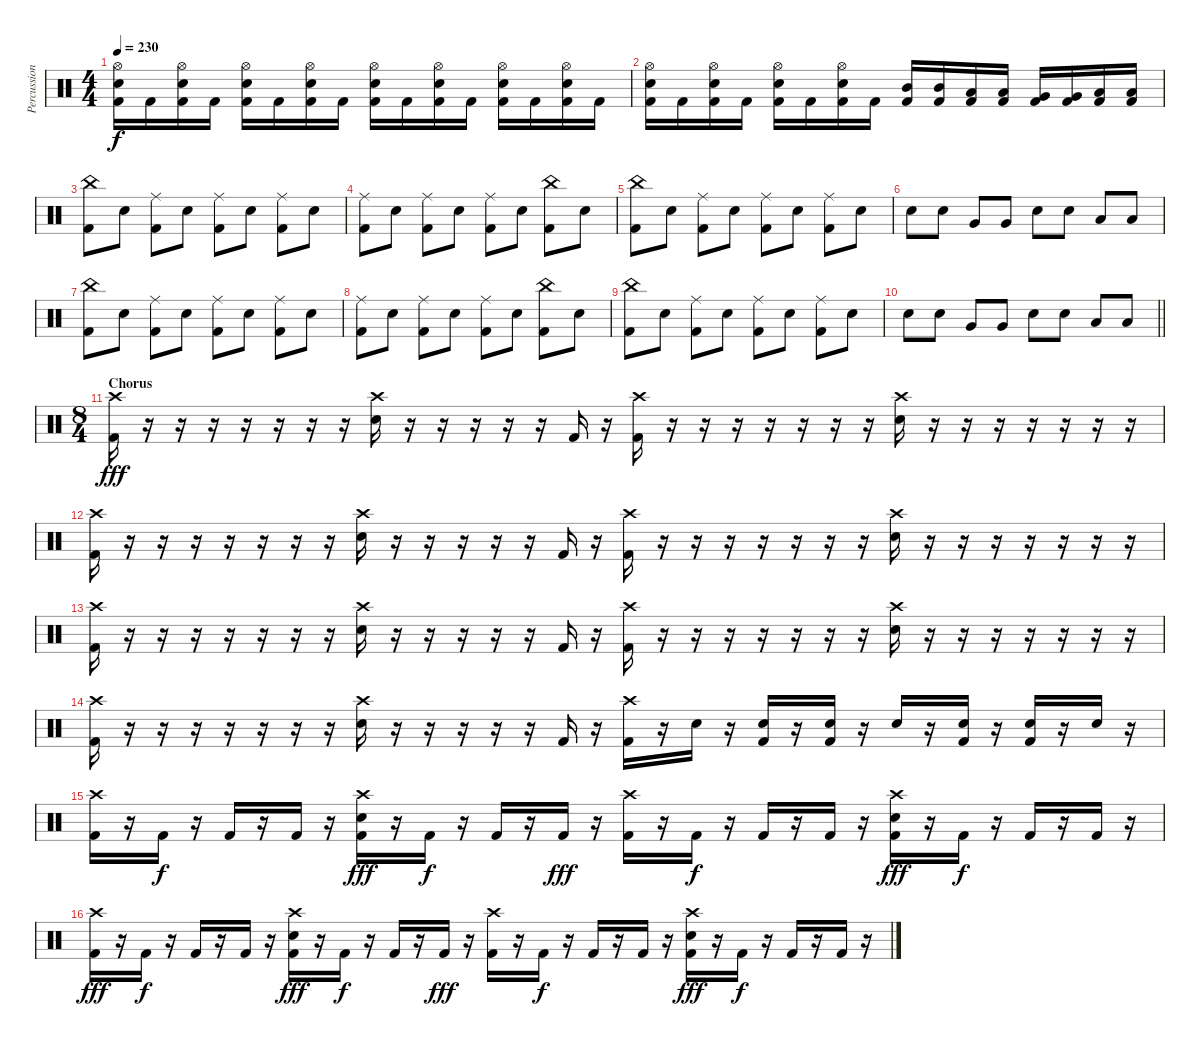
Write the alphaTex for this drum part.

\track ("Percussions" "Percussion") {instrument percussion}
\staff {score}
\articulation defaults
\ts (4 4)
\tempo 230
\clef neutral
\ks c
("Hi-Hat (open)" "Electric Snare (hit)" "Kick (hit) 2").16{dy f} "Kick (hit) 2".16 ("Hi-Hat (open)" "Electric Snare (hit)" "Kick (hit) 2").16 "Kick (hit) 2".16 ("Hi-Hat (open)" "Electric Snare (hit)" "Kick (hit) 2").16 "Kick (hit) 2".16 ("Hi-Hat (open)" "Electric Snare (hit)" "Kick (hit) 2").16 "Kick (hit) 2".16 ("Hi-Hat (open)" "Electric Snare (hit)" "Kick (hit) 2").16 "Kick (hit) 2".16 ("Hi-Hat (open)" "Electric Snare (hit)" "Kick (hit) 2").16 "Kick (hit) 2".16 ("Hi-Hat (open)" "Electric Snare (hit)" "Kick (hit) 2").16 "Kick (hit) 2".16 ("Hi-Hat (open)" "Electric Snare (hit)" "Kick (hit) 2").16 "Kick (hit) 2".16 |
("Hi-Hat (open)" "Electric Snare (hit)" "Kick (hit) 2").16 "Kick (hit) 2".16 ("Hi-Hat (open)" "Electric Snare (hit)" "Kick (hit) 2").16 "Kick (hit) 2".16 ("Hi-Hat (open)" "Electric Snare (hit)" "Kick (hit) 2").16 "Kick (hit) 2".16 ("Hi-Hat (open)" "Electric Snare (hit)" "Kick (hit) 2").16 "Kick (hit) 2".16 ("Mid Tom (hit)" "Kick (hit) 2").16 ("Mid Tom (hit)" "Kick (hit) 2").16 ("Low Tom (hit)" "Kick (hit) 2").16 ("Low Tom (hit)" "Kick (hit) 2").16 ("Very Low Tom (hit)" "Kick (hit) 2").16 ("Very Low Tom (hit)" "Kick (hit) 2").16 ("Low Floor Tom (hit)" "Kick (hit) 2").16 ("Low Floor Tom (hit)" "Kick (hit) 2").16 |
("China (hit)" "Kick (hit) 2").8 "Electric Snare (hit)".8 ("Ride (middle)" "Kick (hit) 2").8 "Electric Snare (hit)".8 ("Ride (middle)" "Kick (hit) 2").8 "Electric Snare (hit)".8 ("Ride (middle)" "Kick (hit) 2").8 "Electric Snare (hit)".8 |
("Ride (middle)" "Kick (hit) 2").8 "Electric Snare (hit)".8 ("Ride (middle)" "Kick (hit) 2").8 "Electric Snare (hit)".8 ("Ride (middle)" "Kick (hit) 2").8 "Electric Snare (hit)".8 ("China (hit)" "Kick (hit) 2").8 "Electric Snare (hit)".8 |
("China (hit)" "Kick (hit) 2").8 "Electric Snare (hit)".8 ("Ride (middle)" "Kick (hit) 2").8 "Electric Snare (hit)".8 ("Ride (middle)" "Kick (hit) 2").8 "Electric Snare (hit)".8 ("Ride (middle)" "Kick (hit) 2").8 "Electric Snare (hit)".8 |
"Electric Snare (hit)".8 "Electric Snare (hit)".8 "Very Low Tom (hit)".8 "Very Low Tom (hit)".8 "Electric Snare (hit)".8 "Electric Snare (hit)".8 "Low Floor Tom (hit)".8 "Low Floor Tom (hit)".8 |
("China (hit)" "Kick (hit) 2").8 "Electric Snare (hit)".8 ("Ride (middle)" "Kick (hit) 2").8 "Electric Snare (hit)".8 ("Ride (middle)" "Kick (hit) 2").8 "Electric Snare (hit)".8 ("Ride (middle)" "Kick (hit) 2").8 "Electric Snare (hit)".8 |
("Ride (middle)" "Kick (hit) 2").8 "Electric Snare (hit)".8 ("Ride (middle)" "Kick (hit) 2").8 "Electric Snare (hit)".8 ("Ride (middle)" "Kick (hit) 2").8 "Electric Snare (hit)".8 ("China (hit)" "Kick (hit) 2").8 "Electric Snare (hit)".8 |
("China (hit)" "Kick (hit) 2").8 "Electric Snare (hit)".8 ("Ride (middle)" "Kick (hit) 2").8 "Electric Snare (hit)".8 ("Ride (middle)" "Kick (hit) 2").8 "Electric Snare (hit)".8 ("Ride (middle)" "Kick (hit) 2").8 "Electric Snare (hit)".8 |
\barLineRight lightlight "Electric Snare (hit)".8 "Electric Snare (hit)".8 "Very Low Tom (hit)".8 "Very Low Tom (hit)".8 "Electric Snare (hit)".8 "Electric Snare (hit)".8 "Low Floor Tom (hit)".8 "Low Floor Tom (hit)".8
|
\ts (8 4)
\section ("" "Chorus")
("Crash high (hit)" "Kick (hit) 2").16{dy fff} r.16 r.16 r.16 r.16 r.16 r.16 r.16 ("Crash high (hit)" "Electric Snare (hit)").16 r.16 r.16 r.16 r.16 r.16 "Kick (hit) 2".16 r.16 ("Crash high (hit)" "Kick (hit) 2").16 r.16 r.16 r.16 r.16 r.16 r.16 r.16 ("Crash high (hit)" "Electric Snare (hit)").16 r.16 r.16 r.16 r.16 r.16 r.16 r.16 |
("Crash high (hit)" "Kick (hit) 2").16 r.16 r.16 r.16 r.16 r.16 r.16 r.16 ("Crash high (hit)" "Electric Snare (hit)").16 r.16 r.16 r.16 r.16 r.16 "Kick (hit) 2".16 r.16 ("Crash high (hit)" "Kick (hit) 2").16 r.16 r.16 r.16 r.16 r.16 r.16 r.16 ("Crash high (hit)" "Electric Snare (hit)").16 r.16 r.16 r.16 r.16 r.16 r.16 r.16 |
("Crash high (hit)" "Kick (hit) 2").16 r.16 r.16 r.16 r.16 r.16 r.16 r.16 ("Crash high (hit)" "Electric Snare (hit)").16 r.16 r.16 r.16 r.16 r.16 "Kick (hit) 2".16 r.16 ("Crash high (hit)" "Kick (hit) 2").16 r.16 r.16 r.16 r.16 r.16 r.16 r.16 ("Crash high (hit)" "Electric Snare (hit)").16 r.16 r.16 r.16 r.16 r.16 r.16 r.16 |
("Crash high (hit)" "Kick (hit) 2").16 r.16 r.16 r.16 r.16 r.16 r.16 r.16 ("Crash high (hit)" "Electric Snare (hit)").16 r.16 r.16 r.16 r.16 r.16 "Kick (hit) 2".16 r.16 ("Crash high (hit)" "Kick (hit) 2").16 r.16 "Electric Snare (hit)".16 r.16 ("Electric Snare (hit)" "Kick (hit) 2").16 r.16 ("Electric Snare (hit)" "Kick (hit) 2").16 r.16 "Electric Snare (hit)".16 r.16 ("Electric Snare (hit)" "Kick (hit) 2").16 r.16 ("Electric Snare (hit)" "Kick (hit) 2").16 r.16 "Electric Snare (hit)".16 r.16 |
("Crash high (hit)" "Kick (hit) 2").16 r.16 "Kick (hit) 2".16{dy f} r.16 "Kick (hit) 2".16 r.16 "Kick (hit) 2".16 r.16 ("Crash high (hit)" "Electric Snare (hit)" "Kick (hit) 2").16{dy fff} r.16 "Kick (hit) 2".16{dy f} r.16 "Kick (hit) 2".16 r.16 "Kick (hit) 2".16{dy fff} r.16 ("Crash high (hit)" "Kick (hit) 2").16 r.16 "Kick (hit) 2".16{dy f} r.16 "Kick (hit) 2".16 r.16 "Kick (hit) 2".16 r.16 ("Crash high (hit)" "Electric Snare (hit)" "Kick (hit) 2").16{dy fff} r.16 "Kick (hit) 2".16{dy f} r.16 "Kick (hit) 2".16 r.16 "Kick (hit) 2".16 r.16 |
("Crash high (hit)" "Kick (hit) 2").16{dy fff} r.16 "Kick (hit) 2".16{dy f} r.16 "Kick (hit) 2".16 r.16 "Kick (hit) 2".16 r.16 ("Crash high (hit)" "Electric Snare (hit)" "Kick (hit) 2").16{dy fff} r.16 "Kick (hit) 2".16{dy f} r.16 "Kick (hit) 2".16 r.16 "Kick (hit) 2".16{dy fff} r.16 ("Crash high (hit)" "Kick (hit) 2").16 r.16 "Kick (hit) 2".16{dy f} r.16 "Kick (hit) 2".16 r.16 "Kick (hit) 2".16 r.16 ("Crash high (hit)" "Electric Snare (hit)" "Kick (hit) 2").16{dy fff} r.16 "Kick (hit) 2".16{dy f} r.16 "Kick (hit) 2".16 r.16 "Kick (hit) 2".16 r.16
